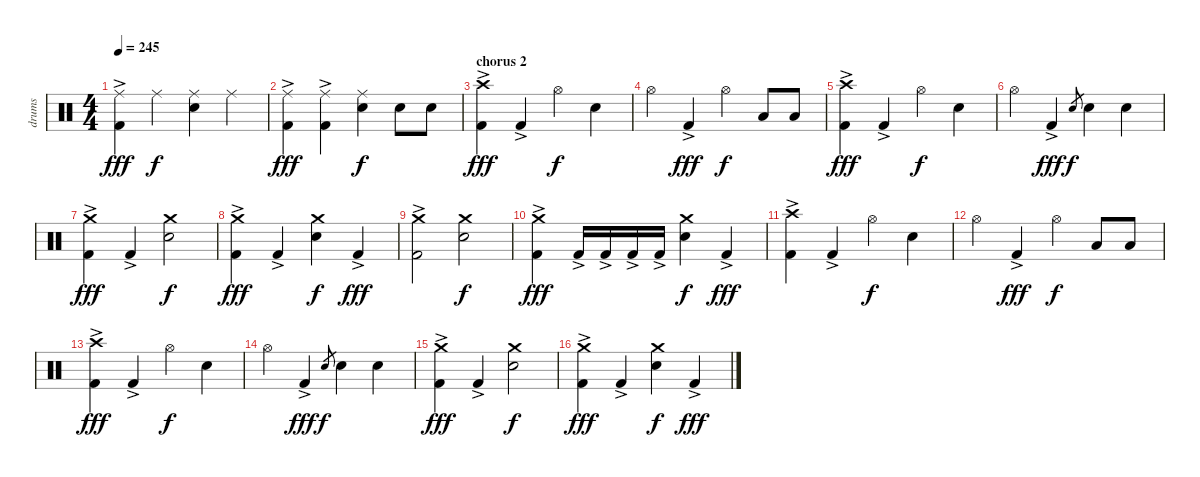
\track ("drums" "drums") {instrument percussion}
\staff {score}
\articulation defaults
\ts (4 4)
\tempo 245
\clef neutral
\ks c
("Ride (middle)" "Kick (hit) 2"{ac}).4{dy fff} "Ride (middle)".4{dy f} ("Ride (middle)" "Electric Snare (hit)").4 "Ride (middle)".4 |
("Ride (middle)" "Kick (hit) 2"{ac}).4{dy fff} ("Ride (middle)" "Kick (hit) 2"{ac}).4 ("Ride (middle)" "Electric Snare (hit)").4{dy f} "Electric Snare (hit)".8 "Electric Snare (hit)".8 |
\section ("" "chorus 2")
("Crash high (hit)" "Kick (hit) 2"{ac}).4{dy fff} "Kick (hit) 2"{ac}.4 "Hi-Hat (open)".4{dy f} "Electric Snare (hit)".4 |
"Hi-Hat (open)".4 "Kick (hit) 2"{ac}.4{dy fff} "Hi-Hat (open)".4{dy f} "Low Tom (hit)".8 "Low Tom (hit)".8 |
("Crash high (hit)" "Kick (hit) 2"{ac}).4{dy fff} "Kick (hit) 2"{ac}.4 "Hi-Hat (open)".4{dy f} "Electric Snare (hit)".4 |
"Hi-Hat (open)".4 "Kick (hit) 2"{ac}.4{dy fff} "Electric Snare (hit)".8{gr dy f} "Electric Snare (hit)".4 "Electric Snare (hit)".4 |
("Crash medium (hit)" "Kick (hit) 2"{ac}).4{dy fff} "Kick (hit) 2"{ac}.4 ("Crash medium (hit)" "Electric Snare (hit)").2{dy f} |
("Crash medium (hit)" "Kick (hit) 2"{ac}).4{dy fff} "Kick (hit) 2"{ac}.4 ("Crash medium (hit)" "Electric Snare (hit)").4{dy f} "Kick (hit) 2"{ac}.4{dy fff} |
("Crash medium (hit)" "Kick (hit) 2"{ac}).2 ("Crash medium (hit)" "Electric Snare (hit)").2{dy f} |
("Crash medium (hit)" "Kick (hit) 2"{ac}).4{dy fff} "Kick (hit) 2"{ac}.16 "Kick (hit) 2"{ac}.16 "Kick (hit) 2"{ac}.16 "Kick (hit) 2"{ac}.16 ("Crash medium (hit)" "Electric Snare (hit)").4{dy f} "Kick (hit) 2"{ac}.4{dy fff} |
("Crash high (hit)" "Kick (hit) 2"{ac}).4 "Kick (hit) 2"{ac}.4 "Hi-Hat (open)".4{dy f} "Electric Snare (hit)".4 |
"Hi-Hat (open)".4 "Kick (hit) 2"{ac}.4{dy fff} "Hi-Hat (open)".4{dy f} "Low Tom (hit)".8 "Low Tom (hit)".8 |
("Crash high (hit)" "Kick (hit) 2"{ac}).4{dy fff} "Kick (hit) 2"{ac}.4 "Hi-Hat (open)".4{dy f} "Electric Snare (hit)".4 |
"Hi-Hat (open)".4 "Kick (hit) 2"{ac}.4{dy fff} "Electric Snare (hit)".8{gr dy f} "Electric Snare (hit)".4 "Electric Snare (hit)".4 |
("Crash medium (hit)" "Kick (hit) 2"{ac}).4{dy fff} "Kick (hit) 2"{ac}.4 ("Crash medium (hit)" "Electric Snare (hit)").2{dy f} |
("Crash medium (hit)" "Kick (hit) 2"{ac}).4{dy fff} "Kick (hit) 2"{ac}.4 ("Crash medium (hit)" "Electric Snare (hit)").4{dy f} "Kick (hit) 2"{ac}.4{dy fff}
